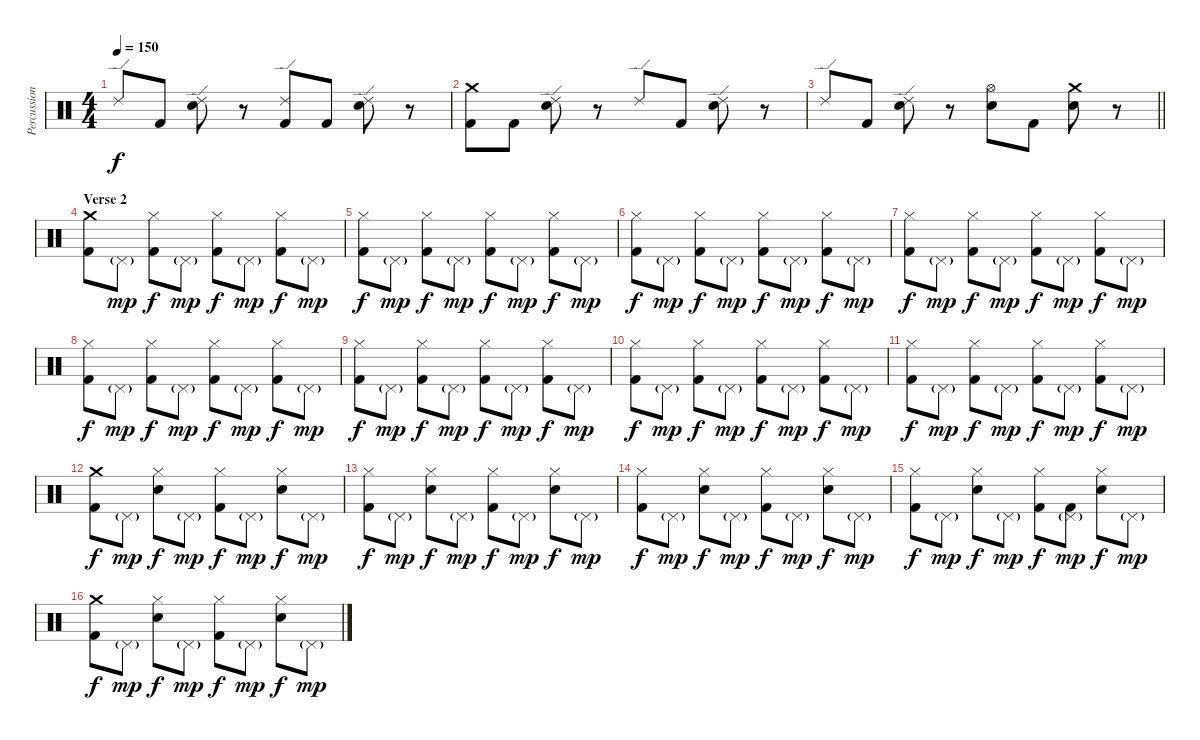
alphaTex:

\track ("Percussion" "Percussion") {instrument percussion}
\staff {score}
\articulation defaults
\ts (4 4)
\tempo 150
\clef neutral
\ks c "Ride (edge) 2".8{dy f} "Kick (hit) 2".8
("Ride (edge) 2" "Electric Snare (hit)").8 r.8 ("Ride (edge) 2" "Kick (hit) 2").8 "Kick (hit) 2".8 ("Ride (edge) 2" "Electric Snare (hit)").8 r.8 |
("Crash medium (hit)" "Kick (hit) 2").8 "Kick (hit) 2".8 ("Ride (edge) 2" "Electric Snare (hit)").8 r.8 "Ride (edge) 2".8 "Kick (hit) 2".8 ("Ride (edge) 2" "Electric Snare (hit)").8 r.8 |
\barLineRight lightlight "Ride (edge) 2".8 "Kick (hit) 2".8
("Ride (edge) 2" "Electric Snare (hit)").8 r.8 ("Hi-Hat (open)" "Electric Snare (hit)").8 "Kick (hit) 2".8 ("Crash medium (hit)" "Electric Snare (hit)").8 r.8 |
\section ("" "Verse 2")
("Crash medium (hit)" "Kick (hit) 2").8 "Pedal Hi-Hat (hit)"{g}.8{dy mp} ("Hi-Hat (closed)" "Kick (hit) 2").8{dy f} "Pedal Hi-Hat (hit)"{g}.8{dy mp} ("Hi-Hat (closed)" "Kick (hit) 2").8{dy f} "Pedal Hi-Hat (hit)"{g}.8{dy mp} ("Hi-Hat (closed)" "Kick (hit) 2").8{dy f} "Pedal Hi-Hat (hit)"{g}.8{dy mp} |
("Hi-Hat (closed)" "Kick (hit) 2").8{dy f} "Pedal Hi-Hat (hit)"{g}.8{dy mp} ("Hi-Hat (closed)" "Kick (hit) 2").8{dy f} "Pedal Hi-Hat (hit)"{g}.8{dy mp} ("Hi-Hat (closed)" "Kick (hit) 2").8{dy f} "Pedal Hi-Hat (hit)"{g}.8{dy mp} ("Hi-Hat (closed)" "Kick (hit) 2").8{dy f} "Pedal Hi-Hat (hit)"{g}.8{dy mp} |
("Hi-Hat (closed)" "Kick (hit) 2").8{dy f} "Pedal Hi-Hat (hit)"{g}.8{dy mp} ("Hi-Hat (closed)" "Kick (hit) 2").8{dy f} "Pedal Hi-Hat (hit)"{g}.8{dy mp} ("Hi-Hat (closed)" "Kick (hit) 2").8{dy f} "Pedal Hi-Hat (hit)"{g}.8{dy mp} ("Hi-Hat (closed)" "Kick (hit) 2").8{dy f} "Pedal Hi-Hat (hit)"{g}.8{dy mp} |
("Hi-Hat (closed)" "Kick (hit) 2").8{dy f} "Pedal Hi-Hat (hit)"{g}.8{dy mp} ("Hi-Hat (closed)" "Kick (hit) 2").8{dy f} "Pedal Hi-Hat (hit)"{g}.8{dy mp} ("Hi-Hat (closed)" "Kick (hit) 2").8{dy f} "Pedal Hi-Hat (hit)"{g}.8{dy mp} ("Hi-Hat (closed)" "Kick (hit) 2").8{dy f} "Pedal Hi-Hat (hit)"{g}.8{dy mp} |
("Hi-Hat (closed)" "Kick (hit) 2").8{dy f} "Pedal Hi-Hat (hit)"{g}.8{dy mp} ("Hi-Hat (closed)" "Kick (hit) 2").8{dy f} "Pedal Hi-Hat (hit)"{g}.8{dy mp} ("Hi-Hat (closed)" "Kick (hit) 2").8{dy f} "Pedal Hi-Hat (hit)"{g}.8{dy mp} ("Hi-Hat (closed)" "Kick (hit) 2").8{dy f} "Pedal Hi-Hat (hit)"{g}.8{dy mp} |
("Hi-Hat (closed)" "Kick (hit) 2").8{dy f} "Pedal Hi-Hat (hit)"{g}.8{dy mp} ("Hi-Hat (closed)" "Kick (hit) 2").8{dy f} "Pedal Hi-Hat (hit)"{g}.8{dy mp} ("Hi-Hat (closed)" "Kick (hit) 2").8{dy f} "Pedal Hi-Hat (hit)"{g}.8{dy mp} ("Hi-Hat (closed)" "Kick (hit) 2").8{dy f} "Pedal Hi-Hat (hit)"{g}.8{dy mp} |
("Hi-Hat (closed)" "Kick (hit) 2").8{dy f} "Pedal Hi-Hat (hit)"{g}.8{dy mp} ("Hi-Hat (closed)" "Kick (hit) 2").8{dy f} "Pedal Hi-Hat (hit)"{g}.8{dy mp} ("Hi-Hat (closed)" "Kick (hit) 2").8{dy f} "Pedal Hi-Hat (hit)"{g}.8{dy mp} ("Hi-Hat (closed)" "Kick (hit) 2").8{dy f} "Pedal Hi-Hat (hit)"{g}.8{dy mp} |
("Hi-Hat (closed)" "Kick (hit) 2").8{dy f} "Pedal Hi-Hat (hit)"{g}.8{dy mp} ("Hi-Hat (closed)" "Kick (hit) 2").8{dy f} "Pedal Hi-Hat (hit)"{g}.8{dy mp} ("Hi-Hat (closed)" "Kick (hit) 2").8{dy f} "Pedal Hi-Hat (hit)"{g}.8{dy mp} ("Hi-Hat (closed)" "Kick (hit) 2").8{dy f} "Pedal Hi-Hat (hit)"{g}.8{dy mp} |
("Crash medium (hit)" "Kick (hit) 2").8{dy f} "Pedal Hi-Hat (hit)"{g}.8{dy mp} ("Hi-Hat (closed)" "Electric Snare (hit)").8{dy f} "Pedal Hi-Hat (hit)"{g}.8{dy mp} ("Hi-Hat (closed)" "Kick (hit) 2").8{dy f} "Pedal Hi-Hat (hit)"{g}.8{dy mp} ("Hi-Hat (closed)" "Electric Snare (hit)").8{dy f} "Pedal Hi-Hat (hit)"{g}.8{dy mp} |
("Hi-Hat (closed)" "Kick (hit) 2").8{dy f} "Pedal Hi-Hat (hit)"{g}.8{dy mp} ("Hi-Hat (closed)" "Electric Snare (hit)").8{dy f} "Pedal Hi-Hat (hit)"{g}.8{dy mp} ("Hi-Hat (closed)" "Kick (hit) 2").8{dy f} "Pedal Hi-Hat (hit)"{g}.8{dy mp} ("Hi-Hat (closed)" "Electric Snare (hit)").8{dy f} "Pedal Hi-Hat (hit)"{g}.8{dy mp} |
("Hi-Hat (closed)" "Kick (hit) 2").8{dy f} "Pedal Hi-Hat (hit)"{g}.8{dy mp} ("Hi-Hat (closed)" "Electric Snare (hit)").8{dy f} "Pedal Hi-Hat (hit)"{g}.8{dy mp} ("Hi-Hat (closed)" "Kick (hit) 2").8{dy f} "Pedal Hi-Hat (hit)"{g}.8{dy mp} ("Hi-Hat (closed)" "Electric Snare (hit)").8{dy f} "Pedal Hi-Hat (hit)"{g}.8{dy mp} |
("Hi-Hat (closed)" "Kick (hit) 2").8{dy f} "Pedal Hi-Hat (hit)"{g}.8{dy mp} ("Hi-Hat (closed)" "Electric Snare (hit)").8{dy f} "Pedal Hi-Hat (hit)"{g}.8{dy mp} ("Hi-Hat (closed)" "Kick (hit) 2").8{dy f} ("Pedal Hi-Hat (hit)"{g} "Kick (hit) 2").8{dy mp} ("Hi-Hat (closed)" "Electric Snare (hit)").8{dy f} "Pedal Hi-Hat (hit)"{g}.8{dy mp} |
("Crash medium (hit)" "Kick (hit) 2").8{dy f} "Pedal Hi-Hat (hit)"{g}.8{dy mp} ("Hi-Hat (closed)" "Electric Snare (hit)").8{dy f} "Pedal Hi-Hat (hit)"{g}.8{dy mp} ("Hi-Hat (closed)" "Kick (hit) 2").8{dy f} "Pedal Hi-Hat (hit)"{g}.8{dy mp} ("Hi-Hat (closed)" "Electric Snare (hit)").8{dy f} "Pedal Hi-Hat (hit)"{g}.8{dy mp}
